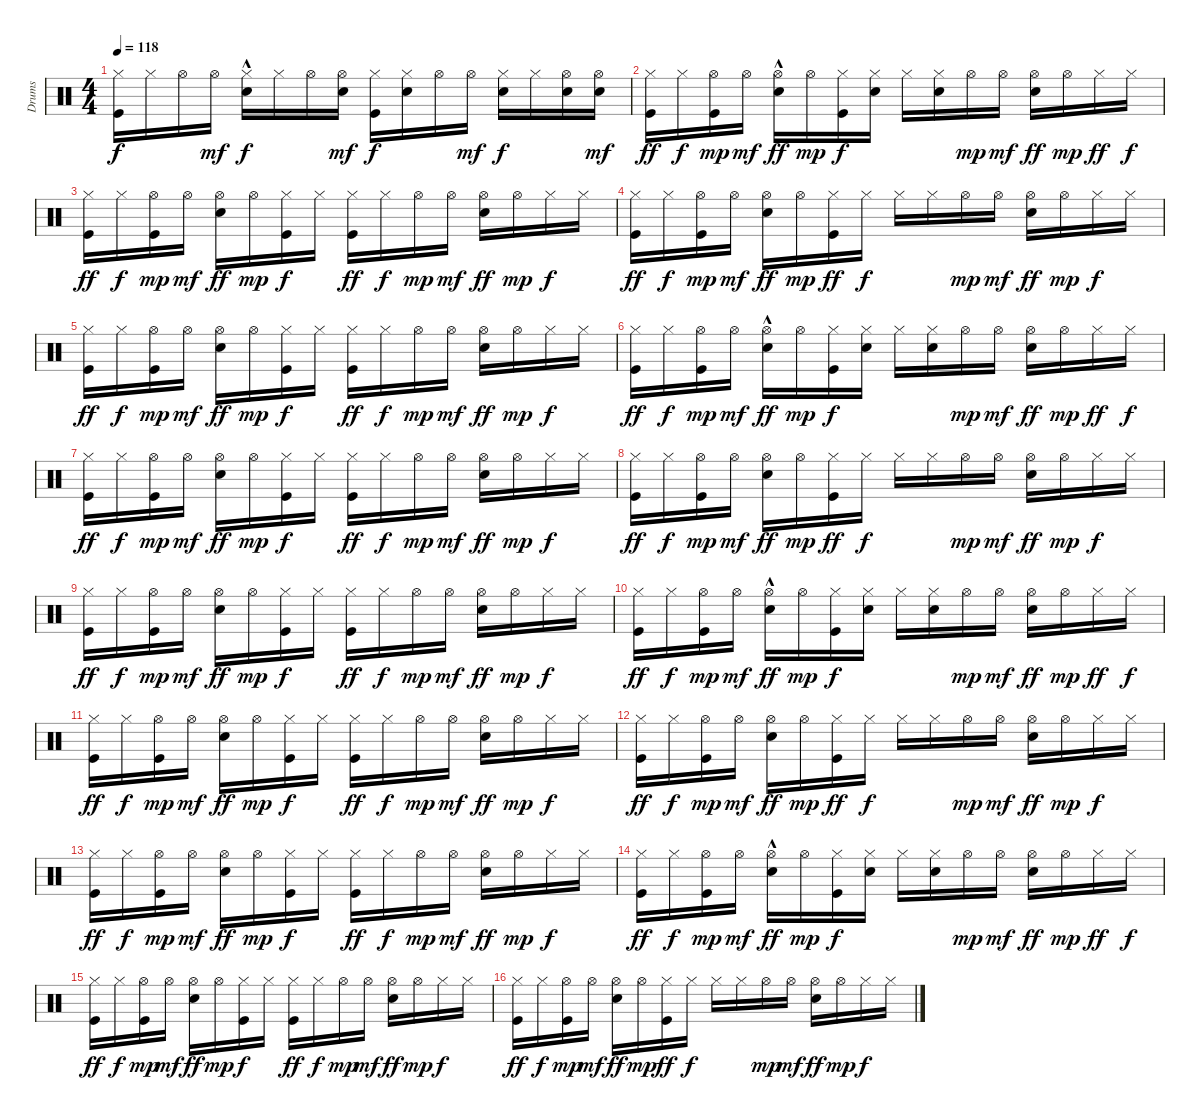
\track ("Drums" "Drums") {instrument percussion}
\staff {score}
\articulation defaults
\ts (4 4)
\tempo 118
\clef neutral
\ks c
("Kick (hit)" "Hi-Hat (closed)").16{dy f} "Hi-Hat (closed)".16 "Hi-Hat (open)".16 "Hi-Hat (open)".16{dy mf} ("Electric Snare (hit)"{hac} "Hi-Hat (closed)").16{dy f} "Hi-Hat (closed)".16 "Hi-Hat (open)".16 ("Hi-Hat (open)" "Electric Snare (hit)").16{dy mf} ("Hi-Hat (closed)" "Kick (hit)").16{dy f} ("Electric Snare (hit)" "Hi-Hat (closed)").16 "Hi-Hat (open)".16 "Hi-Hat (open)".16{dy mf} ("Electric Snare (hit)" "Hi-Hat (closed)").16{dy f} "Hi-Hat (closed)".16 ("Electric Snare (hit)" "Hi-Hat (open)").16 ("Electric Snare (hit)" "Hi-Hat (open)").16{dy mf} |
("Kick (hit)" "Hi-Hat (closed)").16{dy ff} "Hi-Hat (closed)".16{dy f} ("Kick (hit)" "Hi-Hat (open)").16{dy mp} "Hi-Hat (open)".16{dy mf} ("Electric Snare (hit)"{hac} "Hi-Hat (open)").16{dy ff} "Hi-Hat (open)".16{dy mp} ("Kick (hit)" "Hi-Hat (closed)").16{dy f} ("Electric Snare (hit)" "Hi-Hat (closed)").16 "Hi-Hat (closed)".16 ("Electric Snare (hit)" "Hi-Hat (closed)").16 "Hi-Hat (open)".16{dy mp} "Hi-Hat (open)".16{dy mf} ("Hi-Hat (open)" "Electric Snare (hit)").16{dy ff} "Hi-Hat (open)".16{dy mp} "Hi-Hat (closed)".16{dy ff} "Hi-Hat (closed)".16{dy f} |
("Kick (hit)" "Hi-Hat (closed)").16{dy ff} "Hi-Hat (closed)".16{dy f} ("Kick (hit)" "Hi-Hat (open)").16{dy mp} "Hi-Hat (open)".16{dy mf} ("Electric Snare (hit)" "Hi-Hat (open)").16{dy ff} "Hi-Hat (open)".16{dy mp} ("Kick (hit)" "Hi-Hat (closed)").16{dy f} "Hi-Hat (closed)".16 ("Kick (hit)" "Hi-Hat (closed)").16{dy ff} "Hi-Hat (closed)".16{dy f} "Hi-Hat (open)".16{dy mp} "Hi-Hat (open)".16{dy mf} ("Electric Snare (hit)" "Hi-Hat (open)").16{dy ff} "Hi-Hat (open)".16{dy mp} "Hi-Hat (closed)".16{dy f} "Hi-Hat (closed)".16 |
("Kick (hit)" "Hi-Hat (closed)").16{dy ff} "Hi-Hat (closed)".16{dy f} ("Kick (hit)" "Hi-Hat (open)").16{dy mp} "Hi-Hat (open)".16{dy mf} ("Electric Snare (hit)" "Hi-Hat (open)").16{dy ff} "Hi-Hat (open)".16{dy mp} ("Kick (hit)" "Hi-Hat (closed)").16{dy ff} "Hi-Hat (closed)".16{dy f} "Hi-Hat (closed)".16 "Hi-Hat (closed)".16 "Hi-Hat (open)".16{dy mp} "Hi-Hat (open)".16{dy mf} ("Electric Snare (hit)" "Hi-Hat (open)").16{dy ff} "Hi-Hat (open)".16{dy mp} "Hi-Hat (closed)".16{dy f} "Hi-Hat (closed)".16 |
("Kick (hit)" "Hi-Hat (closed)").16{dy ff} "Hi-Hat (closed)".16{dy f} ("Kick (hit)" "Hi-Hat (open)").16{dy mp} "Hi-Hat (open)".16{dy mf} ("Electric Snare (hit)" "Hi-Hat (open)").16{dy ff} "Hi-Hat (open)".16{dy mp} ("Kick (hit)" "Hi-Hat (closed)").16{dy f} "Hi-Hat (closed)".16 ("Kick (hit)" "Hi-Hat (closed)").16{dy ff} "Hi-Hat (closed)".16{dy f} "Hi-Hat (open)".16{dy mp} "Hi-Hat (open)".16{dy mf} ("Electric Snare (hit)" "Hi-Hat (open)").16{dy ff} "Hi-Hat (open)".16{dy mp} "Hi-Hat (closed)".16{dy f} "Hi-Hat (closed)".16 |
("Kick (hit)" "Hi-Hat (closed)").16{dy ff} "Hi-Hat (closed)".16{dy f} ("Kick (hit)" "Hi-Hat (open)").16{dy mp} "Hi-Hat (open)".16{dy mf} ("Electric Snare (hit)"{hac} "Hi-Hat (open)").16{dy ff} "Hi-Hat (open)".16{dy mp} ("Kick (hit)" "Hi-Hat (closed)").16{dy f} ("Electric Snare (hit)" "Hi-Hat (closed)").16 "Hi-Hat (closed)".16 ("Electric Snare (hit)" "Hi-Hat (closed)").16 "Hi-Hat (open)".16{dy mp} "Hi-Hat (open)".16{dy mf} ("Hi-Hat (open)" "Electric Snare (hit)").16{dy ff} "Hi-Hat (open)".16{dy mp} "Hi-Hat (closed)".16{dy ff} "Hi-Hat (closed)".16{dy f} |
("Kick (hit)" "Hi-Hat (closed)").16{dy ff} "Hi-Hat (closed)".16{dy f} ("Kick (hit)" "Hi-Hat (open)").16{dy mp} "Hi-Hat (open)".16{dy mf} ("Electric Snare (hit)" "Hi-Hat (open)").16{dy ff} "Hi-Hat (open)".16{dy mp} ("Kick (hit)" "Hi-Hat (closed)").16{dy f} "Hi-Hat (closed)".16 ("Kick (hit)" "Hi-Hat (closed)").16{dy ff} "Hi-Hat (closed)".16{dy f} "Hi-Hat (open)".16{dy mp} "Hi-Hat (open)".16{dy mf} ("Electric Snare (hit)" "Hi-Hat (open)").16{dy ff} "Hi-Hat (open)".16{dy mp} "Hi-Hat (closed)".16{dy f} "Hi-Hat (closed)".16 |
("Kick (hit)" "Hi-Hat (closed)").16{dy ff} "Hi-Hat (closed)".16{dy f} ("Kick (hit)" "Hi-Hat (open)").16{dy mp} "Hi-Hat (open)".16{dy mf} ("Electric Snare (hit)" "Hi-Hat (open)").16{dy ff} "Hi-Hat (open)".16{dy mp} ("Kick (hit)" "Hi-Hat (closed)").16{dy ff} "Hi-Hat (closed)".16{dy f} "Hi-Hat (closed)".16 "Hi-Hat (closed)".16 "Hi-Hat (open)".16{dy mp} "Hi-Hat (open)".16{dy mf} ("Electric Snare (hit)" "Hi-Hat (open)").16{dy ff} "Hi-Hat (open)".16{dy mp} "Hi-Hat (closed)".16{dy f} "Hi-Hat (closed)".16 |
("Kick (hit)" "Hi-Hat (closed)").16{dy ff} "Hi-Hat (closed)".16{dy f} ("Kick (hit)" "Hi-Hat (open)").16{dy mp} "Hi-Hat (open)".16{dy mf} ("Electric Snare (hit)" "Hi-Hat (open)").16{dy ff} "Hi-Hat (open)".16{dy mp} ("Kick (hit)" "Hi-Hat (closed)").16{dy f} "Hi-Hat (closed)".16 ("Kick (hit)" "Hi-Hat (closed)").16{dy ff} "Hi-Hat (closed)".16{dy f} "Hi-Hat (open)".16{dy mp} "Hi-Hat (open)".16{dy mf} ("Electric Snare (hit)" "Hi-Hat (open)").16{dy ff} "Hi-Hat (open)".16{dy mp} "Hi-Hat (closed)".16{dy f} "Hi-Hat (closed)".16 |
("Kick (hit)" "Hi-Hat (closed)").16{dy ff} "Hi-Hat (closed)".16{dy f} ("Kick (hit)" "Hi-Hat (open)").16{dy mp} "Hi-Hat (open)".16{dy mf} ("Electric Snare (hit)"{hac} "Hi-Hat (open)").16{dy ff} "Hi-Hat (open)".16{dy mp} ("Kick (hit)" "Hi-Hat (closed)").16{dy f} ("Electric Snare (hit)" "Hi-Hat (closed)").16 "Hi-Hat (closed)".16 ("Electric Snare (hit)" "Hi-Hat (closed)").16 "Hi-Hat (open)".16{dy mp} "Hi-Hat (open)".16{dy mf} ("Hi-Hat (open)" "Electric Snare (hit)").16{dy ff} "Hi-Hat (open)".16{dy mp} "Hi-Hat (closed)".16{dy ff} "Hi-Hat (closed)".16{dy f} |
("Kick (hit)" "Hi-Hat (closed)").16{dy ff} "Hi-Hat (closed)".16{dy f} ("Kick (hit)" "Hi-Hat (open)").16{dy mp} "Hi-Hat (open)".16{dy mf} ("Electric Snare (hit)" "Hi-Hat (open)").16{dy ff} "Hi-Hat (open)".16{dy mp} ("Kick (hit)" "Hi-Hat (closed)").16{dy f} "Hi-Hat (closed)".16 ("Kick (hit)" "Hi-Hat (closed)").16{dy ff} "Hi-Hat (closed)".16{dy f} "Hi-Hat (open)".16{dy mp} "Hi-Hat (open)".16{dy mf} ("Electric Snare (hit)" "Hi-Hat (open)").16{dy ff} "Hi-Hat (open)".16{dy mp} "Hi-Hat (closed)".16{dy f} "Hi-Hat (closed)".16 |
("Kick (hit)" "Hi-Hat (closed)").16{dy ff} "Hi-Hat (closed)".16{dy f} ("Kick (hit)" "Hi-Hat (open)").16{dy mp} "Hi-Hat (open)".16{dy mf} ("Electric Snare (hit)" "Hi-Hat (open)").16{dy ff} "Hi-Hat (open)".16{dy mp} ("Kick (hit)" "Hi-Hat (closed)").16{dy ff} "Hi-Hat (closed)".16{dy f} "Hi-Hat (closed)".16 "Hi-Hat (closed)".16 "Hi-Hat (open)".16{dy mp} "Hi-Hat (open)".16{dy mf} ("Electric Snare (hit)" "Hi-Hat (open)").16{dy ff} "Hi-Hat (open)".16{dy mp} "Hi-Hat (closed)".16{dy f} "Hi-Hat (closed)".16 |
("Kick (hit)" "Hi-Hat (closed)").16{dy ff} "Hi-Hat (closed)".16{dy f} ("Kick (hit)" "Hi-Hat (open)").16{dy mp} "Hi-Hat (open)".16{dy mf} ("Electric Snare (hit)" "Hi-Hat (open)").16{dy ff} "Hi-Hat (open)".16{dy mp} ("Kick (hit)" "Hi-Hat (closed)").16{dy f} "Hi-Hat (closed)".16 ("Kick (hit)" "Hi-Hat (closed)").16{dy ff} "Hi-Hat (closed)".16{dy f} "Hi-Hat (open)".16{dy mp} "Hi-Hat (open)".16{dy mf} ("Electric Snare (hit)" "Hi-Hat (open)").16{dy ff} "Hi-Hat (open)".16{dy mp} "Hi-Hat (closed)".16{dy f} "Hi-Hat (closed)".16 |
("Kick (hit)" "Hi-Hat (closed)").16{dy ff} "Hi-Hat (closed)".16{dy f} ("Kick (hit)" "Hi-Hat (open)").16{dy mp} "Hi-Hat (open)".16{dy mf} ("Electric Snare (hit)"{hac} "Hi-Hat (open)").16{dy ff} "Hi-Hat (open)".16{dy mp} ("Kick (hit)" "Hi-Hat (closed)").16{dy f} ("Electric Snare (hit)" "Hi-Hat (closed)").16 "Hi-Hat (closed)".16 ("Electric Snare (hit)" "Hi-Hat (closed)").16 "Hi-Hat (open)".16{dy mp} "Hi-Hat (open)".16{dy mf} ("Hi-Hat (open)" "Electric Snare (hit)").16{dy ff} "Hi-Hat (open)".16{dy mp} "Hi-Hat (closed)".16{dy ff} "Hi-Hat (closed)".16{dy f} |
("Kick (hit)" "Hi-Hat (closed)").16{dy ff} "Hi-Hat (closed)".16{dy f} ("Kick (hit)" "Hi-Hat (open)").16{dy mp} "Hi-Hat (open)".16{dy mf} ("Electric Snare (hit)" "Hi-Hat (open)").16{dy ff} "Hi-Hat (open)".16{dy mp} ("Kick (hit)" "Hi-Hat (closed)").16{dy f} "Hi-Hat (closed)".16 ("Kick (hit)" "Hi-Hat (closed)").16{dy ff} "Hi-Hat (closed)".16{dy f} "Hi-Hat (open)".16{dy mp} "Hi-Hat (open)".16{dy mf} ("Electric Snare (hit)" "Hi-Hat (open)").16{dy ff} "Hi-Hat (open)".16{dy mp} "Hi-Hat (closed)".16{dy f} "Hi-Hat (closed)".16 |
("Kick (hit)" "Hi-Hat (closed)").16{dy ff} "Hi-Hat (closed)".16{dy f} ("Kick (hit)" "Hi-Hat (open)").16{dy mp} "Hi-Hat (open)".16{dy mf} ("Electric Snare (hit)" "Hi-Hat (open)").16{dy ff} "Hi-Hat (open)".16{dy mp} ("Kick (hit)" "Hi-Hat (closed)").16{dy ff} "Hi-Hat (closed)".16{dy f} "Hi-Hat (closed)".16 "Hi-Hat (closed)".16 "Hi-Hat (open)".16{dy mp} "Hi-Hat (open)".16{dy mf} ("Electric Snare (hit)" "Hi-Hat (open)").16{dy ff} "Hi-Hat (open)".16{dy mp} "Hi-Hat (closed)".16{dy f} "Hi-Hat (closed)".16
